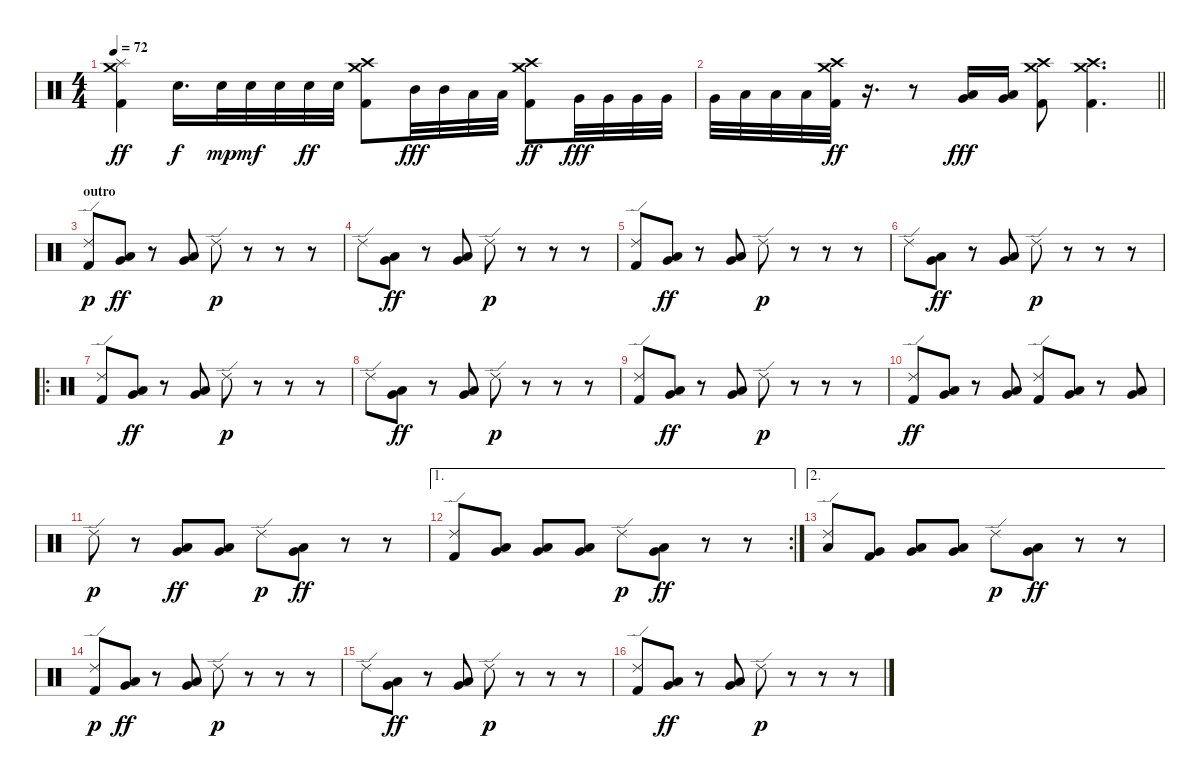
\track "" {instrument percussion}
\staff {score}
\articulation defaults
\ts (4 4)
\tempo 72
\clef neutral
\ks c
("Splash (hit)" "Crash medium (hit)" "Kick (hit) 2").4{dy ff} "Snare (hit) 2".16{d dy f} "Snare (hit) 2".32{dy mp} "Snare (hit) 2".32{dy mf} "Snare (hit) 2".32 "Snare (hit) 2".32{dy ff} "Snare (hit) 2".32 ("Crash medium (hit)" "Crash high (hit)" "Kick (hit) 2").8 "Mid Tom (hit)".32{dy fff} "Mid Tom (hit)".32 "Low Tom (hit)".32 "Low Tom (hit)".32 ("Crash medium (hit)" "Crash high (hit)" "Kick (hit) 2").8{dy ff} "Very Low Tom (hit)".32{dy fff} "Very Low Tom (hit)".32 "Very Low Tom (hit)".32 "Very Low Tom (hit)".32 |
\barLineRight lightlight "Very Low Tom (hit)".32 "Low Tom (hit)".32 "Low Tom (hit)".32 "Low Tom (hit)".32
("Crash medium (hit)" "Crash high (hit)" "Kick (hit) 2").32{dy ff} r.16{d} r.8 ("Very Low Tom (hit)" "Low Floor Tom (hit)").16{dy fff} ("Very Low Tom (hit)" "Low Floor Tom (hit)").16 ("Crash medium (hit)" "Crash high (hit)" "Kick (hit) 2").8 ("Crash medium (hit)" "Crash high (hit)" "Kick (hit) 2").4{d} |
\section ("" "outro")
("Ride (edge) 2" "Kick (hit) 2").8{dy p} ("Very Low Tom (hit)" "Low Floor Tom (hit)").8{dy ff} r.8 ("Very Low Tom (hit)" "Low Floor Tom (hit)").8 "Ride (edge) 2".8{dy p} r.8 r.8 r.8 |
"Ride (edge) 2".8 ("Very Low Tom (hit)" "Low Floor Tom (hit)").8{dy ff} r.8 ("Very Low Tom (hit)" "Low Floor Tom (hit)").8 "Ride (edge) 2".8{dy p} r.8 r.8 r.8 |
("Ride (edge) 2" "Kick (hit) 2").8 ("Very Low Tom (hit)" "Low Floor Tom (hit)").8{dy ff} r.8 ("Very Low Tom (hit)" "Low Floor Tom (hit)").8 "Ride (edge) 2".8{dy p} r.8 r.8 r.8 |
"Ride (edge) 2".8 ("Very Low Tom (hit)" "Low Floor Tom (hit)").8{dy ff} r.8 ("Very Low Tom (hit)" "Low Floor Tom (hit)").8 "Ride (edge) 2".8{dy p} r.8 r.8 r.8 |
\ro
("Ride (edge) 2" "Kick (hit) 2").8 ("Very Low Tom (hit)" "Low Floor Tom (hit)").8{dy ff} r.8 ("Very Low Tom (hit)" "Low Floor Tom (hit)").8 "Ride (edge) 2".8{dy p} r.8 r.8 r.8 |
"Ride (edge) 2".8 ("Very Low Tom (hit)" "Low Floor Tom (hit)").8{dy ff} r.8 ("Very Low Tom (hit)" "Low Floor Tom (hit)").8 "Ride (edge) 2".8{dy p} r.8 r.8 r.8 |
("Ride (edge) 2" "Kick (hit) 2").8 ("Very Low Tom (hit)" "Low Floor Tom (hit)").8{dy ff} r.8 ("Very Low Tom (hit)" "Low Floor Tom (hit)").8 "Ride (edge) 2".8{dy p} r.8 r.8 r.8 |
("Ride (edge) 2" "Kick (hit) 2").8{dy ff} ("Very Low Tom (hit)" "Low Floor Tom (hit)").8 r.8 ("Very Low Tom (hit)" "Low Floor Tom (hit)").8 ("Ride (edge) 2" "Kick (hit) 2").8 ("Very Low Tom (hit)" "Low Floor Tom (hit)").8 r.8 ("Very Low Tom (hit)" "Low Floor Tom (hit)").8 |
"Ride (edge) 2".8{dy p} r.8 ("Very Low Tom (hit)" "Low Floor Tom (hit)").8{dy ff} ("Very Low Tom (hit)" "Low Floor Tom (hit)").8 "Ride (edge) 2".8{dy p} ("Very Low Tom (hit)" "Low Floor Tom (hit)").8{dy ff} r.8 r.8 |
\ae 1
\rc 2
("Ride (edge) 2" "Kick (hit) 2").8 ("Very Low Tom (hit)" "Low Floor Tom (hit)").8 ("Very Low Tom (hit)" "Low Floor Tom (hit)").8 ("Very Low Tom (hit)" "Low Floor Tom (hit)").8 "Ride (edge) 2".8{dy p} ("Very Low Tom (hit)" "Low Floor Tom (hit)").8{dy ff} r.8 r.8 |
\ae 2
("Ride (edge) 2" "Low Floor Tom (hit)").8 ("Very Low Tom (hit)" "Kick (hit) 2").8 ("Very Low Tom (hit)" "Low Floor Tom (hit)").8 ("Very Low Tom (hit)" "Low Floor Tom (hit)").8 "Ride (edge) 2".8{dy p} ("Very Low Tom (hit)" "Low Floor Tom (hit)").8{dy ff} r.8 r.8 |
("Ride (edge) 2" "Kick (hit) 2").8{dy p} ("Very Low Tom (hit)" "Low Floor Tom (hit)").8{dy ff} r.8 ("Very Low Tom (hit)" "Low Floor Tom (hit)").8 "Ride (edge) 2".8{dy p} r.8 r.8 r.8 |
"Ride (edge) 2".8 ("Very Low Tom (hit)" "Low Floor Tom (hit)").8{dy ff} r.8 ("Very Low Tom (hit)" "Low Floor Tom (hit)").8 "Ride (edge) 2".8{dy p} r.8 r.8 r.8 |
("Ride (edge) 2" "Kick (hit) 2").8 ("Very Low Tom (hit)" "Low Floor Tom (hit)").8{dy ff} r.8 ("Very Low Tom (hit)" "Low Floor Tom (hit)").8 "Ride (edge) 2".8{dy p} r.8 r.8 r.8
